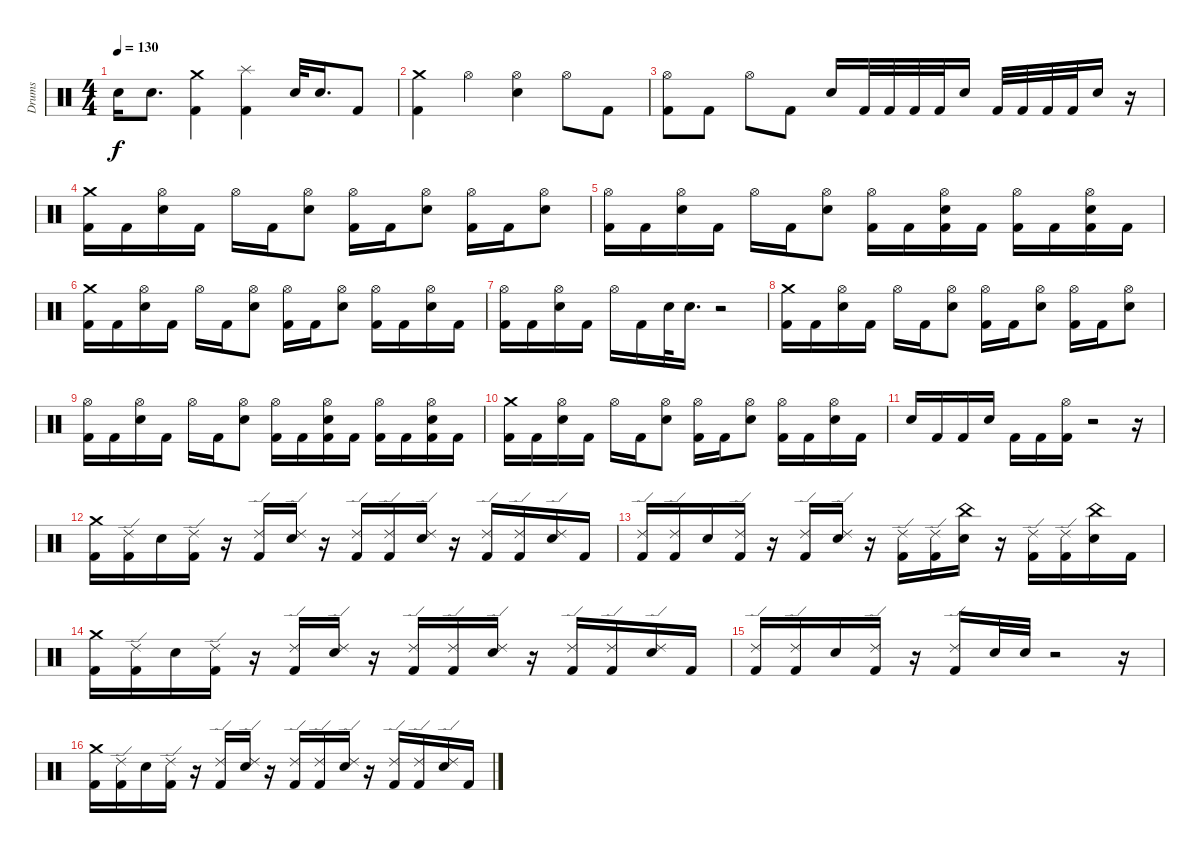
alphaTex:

\track ("Drums" "Drums") {instrument percussion}
\staff {score}
\articulation defaults
\ts (4 4)
\tempo 130
\clef neutral
\ks c "Electric Snare (hit)".16{dy f} "Electric Snare (hit)".8{d}
("Crash medium (hit)" "Kick (hit) 2").4 ("Splash (hit)" "Kick (hit) 2").4 "Electric Snare (hit)".32 "Electric Snare (hit)".16{d} "Kick (hit) 2".8 |
("Kick (hit) 2" "Crash medium (hit)").4 "Hi-Hat (open)".4 ("Electric Snare (hit)" "Hi-Hat (open)").4 "Hi-Hat (open)".8 "Kick (hit) 2".8 |
("Kick (hit) 2" "Hi-Hat (open)").8 "Kick (hit) 2".8 "Hi-Hat (open)".8 "Kick (hit) 2".8 "Electric Snare (hit)".16 "Kick (hit) 2".32 "Kick (hit) 2".32 "Kick (hit) 2".32 "Kick (hit) 2".32 "Electric Snare (hit)".16 "Kick (hit) 2".32 "Kick (hit) 2".32 "Kick (hit) 2".32 "Kick (hit) 2".32 "Electric Snare (hit)".16 r.16 |
("Kick (hit) 2" "Crash medium (hit)").16 "Kick (hit) 2".16 ("Electric Snare (hit)" "Hi-Hat (open)").16 "Kick (hit) 2".16 "Hi-Hat (open)".16 "Kick (hit) 2".16 ("Electric Snare (hit)" "Hi-Hat (open)").8 ("Kick (hit) 2" "Hi-Hat (open)").16 "Kick (hit) 2".16 ("Electric Snare (hit)" "Hi-Hat (open)").8 ("Kick (hit) 2" "Hi-Hat (open)").16 "Kick (hit) 2".16 ("Electric Snare (hit)" "Hi-Hat (open)").8 |
("Hi-Hat (open)" "Kick (hit) 2").16 "Kick (hit) 2".16 ("Hi-Hat (open)" "Electric Snare (hit)").16 "Kick (hit) 2".16 "Hi-Hat (open)".16 "Kick (hit) 2".16 ("Hi-Hat (open)" "Electric Snare (hit)").8 ("Hi-Hat (open)" "Kick (hit) 2").16 "Kick (hit) 2".16 ("Hi-Hat (open)" "Electric Snare (hit)" "Kick (hit) 2").16 "Kick (hit) 2".16 ("Hi-Hat (open)" "Kick (hit) 2").16 "Kick (hit) 2".16 ("Hi-Hat (open)" "Electric Snare (hit)" "Kick (hit) 2").16 "Kick (hit) 2".16 |
("Kick (hit) 2" "Crash medium (hit)").16 "Kick (hit) 2".16 ("Electric Snare (hit)" "Hi-Hat (open)").16 "Kick (hit) 2".16 "Hi-Hat (open)".16 "Kick (hit) 2".16 ("Electric Snare (hit)" "Hi-Hat (open)").8 ("Kick (hit) 2" "Hi-Hat (open)").16 "Kick (hit) 2".16 ("Electric Snare (hit)" "Hi-Hat (open)").8 ("Kick (hit) 2" "Hi-Hat (open)").16 "Kick (hit) 2".16 ("Electric Snare (hit)" "Hi-Hat (open)").16 "Kick (hit) 2".16 |
("Hi-Hat (open)" "Kick (hit) 2").16 "Kick (hit) 2".16 ("Hi-Hat (open)" "Electric Snare (hit)").16 "Kick (hit) 2".16 "Hi-Hat (open)".16 "Kick (hit) 2".16 "Electric Snare (hit)".32 "Electric Snare (hit)".16{d} r.2 |
("Kick (hit) 2" "Crash medium (hit)").16 "Kick (hit) 2".16 ("Electric Snare (hit)" "Hi-Hat (open)").16 "Kick (hit) 2".16 "Hi-Hat (open)".16 "Kick (hit) 2".16 ("Electric Snare (hit)" "Hi-Hat (open)").8 ("Kick (hit) 2" "Hi-Hat (open)").16 "Kick (hit) 2".16 ("Electric Snare (hit)" "Hi-Hat (open)").8 ("Kick (hit) 2" "Hi-Hat (open)").16 "Kick (hit) 2".16 ("Electric Snare (hit)" "Hi-Hat (open)").8 |
("Hi-Hat (open)" "Kick (hit) 2").16 "Kick (hit) 2".16 ("Hi-Hat (open)" "Electric Snare (hit)").16 "Kick (hit) 2".16 "Hi-Hat (open)".16 "Kick (hit) 2".16 ("Hi-Hat (open)" "Electric Snare (hit)").8 ("Hi-Hat (open)" "Kick (hit) 2").16 "Kick (hit) 2".16 ("Hi-Hat (open)" "Electric Snare (hit)" "Kick (hit) 2").16 "Kick (hit) 2".16 ("Hi-Hat (open)" "Kick (hit) 2").16 "Kick (hit) 2".16 ("Hi-Hat (open)" "Electric Snare (hit)" "Kick (hit) 2").16 "Kick (hit) 2".16 |
("Kick (hit) 2" "Crash medium (hit)").16 "Kick (hit) 2".16 ("Electric Snare (hit)" "Hi-Hat (open)").16 "Kick (hit) 2".16 "Hi-Hat (open)".16 "Kick (hit) 2".16 ("Electric Snare (hit)" "Hi-Hat (open)").8 ("Kick (hit) 2" "Hi-Hat (open)").16 "Kick (hit) 2".16 ("Electric Snare (hit)" "Hi-Hat (open)").8 ("Kick (hit) 2" "Hi-Hat (open)").16 "Kick (hit) 2".16 ("Electric Snare (hit)" "Hi-Hat (open)").16 "Kick (hit) 2".16 |
"Electric Snare (hit)".16 "Kick (hit) 2".16 "Kick (hit) 2".16 "Electric Snare (hit)".16 "Kick (hit) 2".16 "Kick (hit) 2".16 ("Hi-Hat (open)" "Kick (hit) 2").16 r.2 r.16 |
("Crash medium (hit)" "Kick (hit) 2").16 ("Kick (hit) 2" "Ride (edge) 2").16 "Electric Snare (hit)".16 ("Kick (hit) 2" "Ride (edge) 2").16 r.16 ("Kick (hit) 2" "Ride (edge) 2").16 ("Electric Snare (hit)" "Ride (edge) 2").16 r.16 ("Kick (hit) 2" "Ride (edge) 2").16 ("Kick (hit) 2" "Ride (edge) 2").16 ("Electric Snare (hit)" "Ride (edge) 2").16 r.16 ("Kick (hit) 2" "Ride (edge) 2").16 ("Kick (hit) 2" "Ride (edge) 2").16 ("Electric Snare (hit)" "Ride (edge) 2").16 "Kick (hit) 2".16 |
("Kick (hit) 2" "Ride (edge) 2").16 ("Kick (hit) 2" "Ride (edge) 2").16 "Electric Snare (hit)".16 ("Kick (hit) 2" "Ride (edge) 2").16 r.16 ("Kick (hit) 2" "Ride (edge) 2").16 ("Electric Snare (hit)" "Ride (edge) 2").16 r.16 ("Ride (edge) 2" "Kick (hit) 2").16 ("Ride (edge) 2" "Kick (hit) 2").16 ("China (hit)" "Electric Snare (hit)").16 r.16 ("Ride (edge) 2" "Kick (hit) 2").16 ("Ride (edge) 2" "Kick (hit) 2").16 ("China (hit)" "Electric Snare (hit)").16 "Kick (hit) 2".16 |
("Crash medium (hit)" "Kick (hit) 2").16 ("Kick (hit) 2" "Ride (edge) 2").16 "Electric Snare (hit)".16 ("Kick (hit) 2" "Ride (edge) 2").16 r.16 ("Kick (hit) 2" "Ride (edge) 2").16 ("Electric Snare (hit)" "Ride (edge) 2").16 r.16 ("Kick (hit) 2" "Ride (edge) 2").16 ("Kick (hit) 2" "Ride (edge) 2").16 ("Electric Snare (hit)" "Ride (edge) 2").16 r.16 ("Kick (hit) 2" "Ride (edge) 2").16 ("Kick (hit) 2" "Ride (edge) 2").16 ("Electric Snare (hit)" "Ride (edge) 2").16 "Kick (hit) 2".16 |
("Kick (hit) 2" "Ride (edge) 2").16 ("Kick (hit) 2" "Ride (edge) 2").16 "Electric Snare (hit)".16 ("Kick (hit) 2" "Ride (edge) 2").16 r.16 ("Kick (hit) 2" "Ride (edge) 2").16 "Electric Snare (hit)".32 "Electric Snare (hit)".32 r.2 r.16 |
("Crash medium (hit)" "Kick (hit) 2").16 ("Kick (hit) 2" "Ride (edge) 2").16 "Electric Snare (hit)".16 ("Kick (hit) 2" "Ride (edge) 2").16 r.16 ("Kick (hit) 2" "Ride (edge) 2").16 ("Electric Snare (hit)" "Ride (edge) 2").16 r.16 ("Kick (hit) 2" "Ride (edge) 2").16 ("Kick (hit) 2" "Ride (edge) 2").16 ("Electric Snare (hit)" "Ride (edge) 2").16 r.16 ("Kick (hit) 2" "Ride (edge) 2").16 ("Kick (hit) 2" "Ride (edge) 2").16 ("Electric Snare (hit)" "Ride (edge) 2").16 "Kick (hit) 2".16
